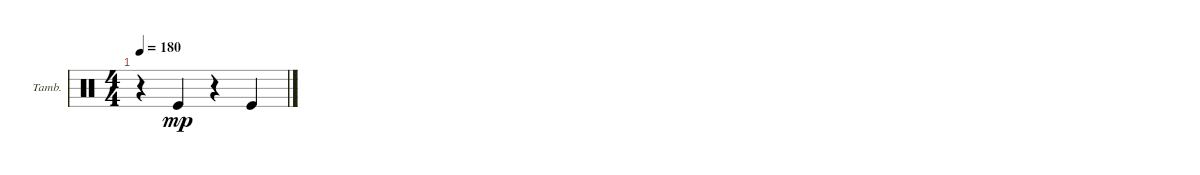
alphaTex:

\defaultSystemsLayout 4
\bracketExtendMode groupsimilarinstruments
\firstSystemTrackNameOrientation horizontal
\otherSystemsTrackNameOrientation horizontal
\track ("Tambourine" "Tamb.") {instrument percussion}
\staff {score}
\articulation defaults
\ts (4 4)
\tempo 180
\clef neutral
\ks c
r.4{dy mp} "Kick (hit)".4 r.4 "Kick (hit)".4
